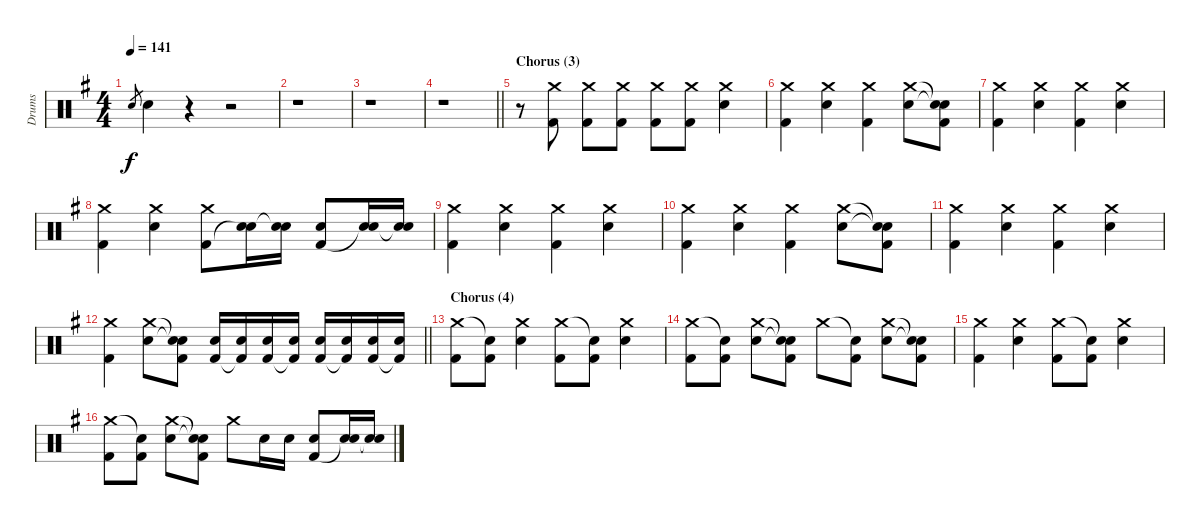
\track ("Drums" "Drums") {instrument percussion}
\staff {score}
\articulation defaults
\ts (4 4)
\tempo 141
\clef neutral
\ks g "Electric Snare (hit)".8{gr dy f} "Electric Snare (hit)".4
r.4 r.2 |
r.1 |
r.1 |
\barLineRight lightlight
r.1 |
\section ("" "Chorus (3)")
r.8 ("Crash medium (hit)" "Kick (hit) 2").8 ("Crash medium (hit)" "Kick (hit) 2").8 ("Crash medium (hit)" "Kick (hit) 2").8 ("Crash medium (hit)" "Kick (hit) 2").8 ("Crash medium (hit)" "Kick (hit) 2").8 ("Crash medium (hit)" "Electric Snare (hit)").4 |
("Crash medium (hit)" "Kick (hit) 2").4 ("Crash medium (hit)" "Electric Snare (hit)").4 ("Crash medium (hit)" "Kick (hit) 2").4 ("Crash medium (hit)" "Electric Snare (hit)").8 ("Snare (hit)"{t} "Snare (hit)"{t} "Kick (hit) 2").8 |
("Crash medium (hit)" "Kick (hit) 2").4 ("Crash medium (hit)" "Electric Snare (hit)").4 ("Crash medium (hit)" "Kick (hit) 2").4 ("Crash medium (hit)" "Electric Snare (hit)").4 |
("Crash medium (hit)" "Kick (hit) 2").4 ("Crash medium (hit)" "Electric Snare (hit)").4 ("Crash medium (hit)" "Kick (hit) 2").8 ("Electric Snare (hit)" "Snare (hit)"{t}).16 ("Electric Snare (hit)" "Snare (hit)"{t}).16 ("Electric Snare (hit)" "Kick (hit) 2").8 ("Electric Snare (hit)" "Snare (hit)"{t}).16 ("Electric Snare (hit)" "Snare (hit)"{t}).16 |
("Crash medium (hit)" "Kick (hit) 2").4 ("Crash medium (hit)" "Electric Snare (hit)").4 ("Crash medium (hit)" "Kick (hit) 2").4 ("Crash medium (hit)" "Electric Snare (hit)").4 |
("Crash medium (hit)" "Kick (hit) 2").4 ("Crash medium (hit)" "Electric Snare (hit)").4 ("Crash medium (hit)" "Kick (hit) 2").4 ("Crash medium (hit)" "Electric Snare (hit)").8 ("Snare (hit)"{t} "Snare (hit)"{t} "Kick (hit) 2").8 |
("Crash medium (hit)" "Kick (hit) 2").4 ("Crash medium (hit)" "Electric Snare (hit)").4 ("Crash medium (hit)" "Kick (hit) 2").4 ("Crash medium (hit)" "Electric Snare (hit)").4 |
\barLineRight lightlight
("Crash medium (hit)" "Kick (hit) 2").4 ("Crash medium (hit)" "Electric Snare (hit)").8 ("Snare (hit)"{t} "Snare (hit)"{t} "Kick (hit) 2").8 ("Electric Snare (hit)" "Kick (hit) 2").16 ("Electric Snare (hit)" "Kick (hit) 2"{t}).16 ("Electric Snare (hit)" "Kick (hit) 2").16 ("Electric Snare (hit)" "Kick (hit) 2"{t}).16 ("Electric Snare (hit)" "Kick (hit) 2").16 ("Electric Snare (hit)" "Kick (hit) 2"{t}).16 ("Electric Snare (hit)" "Kick (hit) 2").16 ("Electric Snare (hit)" "Kick (hit) 2"{t}).16 |
\section ("" "Chorus (4)")
("Crash medium (hit)" "Kick (hit) 2").8 ("Snare (hit)"{t} "Kick (hit) 2").8 ("Crash medium (hit)" "Electric Snare (hit)").4 ("Crash medium (hit)" "Kick (hit) 2").8 ("Snare (hit)"{t} "Kick (hit) 2").8 ("Crash medium (hit)" "Electric Snare (hit)").4 |
("Crash medium (hit)" "Kick (hit) 2").8 ("Snare (hit)"{t} "Kick (hit) 2").8 ("Crash medium (hit)" "Electric Snare (hit)").8 ("Snare (hit)"{t} "Snare (hit)"{t} "Kick (hit) 2").8 "Crash medium (hit)".8 ("Snare (hit)"{t} "Kick (hit) 2").8 ("Crash medium (hit)" "Electric Snare (hit)").8 ("Snare (hit)"{t} "Snare (hit)"{t} "Kick (hit) 2").8 |
("Crash medium (hit)" "Kick (hit) 2").4 ("Crash medium (hit)" "Electric Snare (hit)").4 ("Crash medium (hit)" "Kick (hit) 2").8 ("Snare (hit)"{t} "Kick (hit) 2").8 ("Crash medium (hit)" "Electric Snare (hit)").4 |
("Crash medium (hit)" "Kick (hit) 2").8 ("Snare (hit)"{t} "Kick (hit) 2").8 ("Crash medium (hit)" "Electric Snare (hit)").8 ("Snare (hit)"{t} "Snare (hit)"{t} "Kick (hit) 2").8 "Crash medium (hit)".8 "Electric Snare (hit)".16 "Electric Snare (hit)".16 ("Electric Snare (hit)" "Kick (hit) 2").8 ("Electric Snare (hit)" "Snare (hit)"{t}).16 ("Electric Snare (hit)" "Snare (hit)"{t}).16
